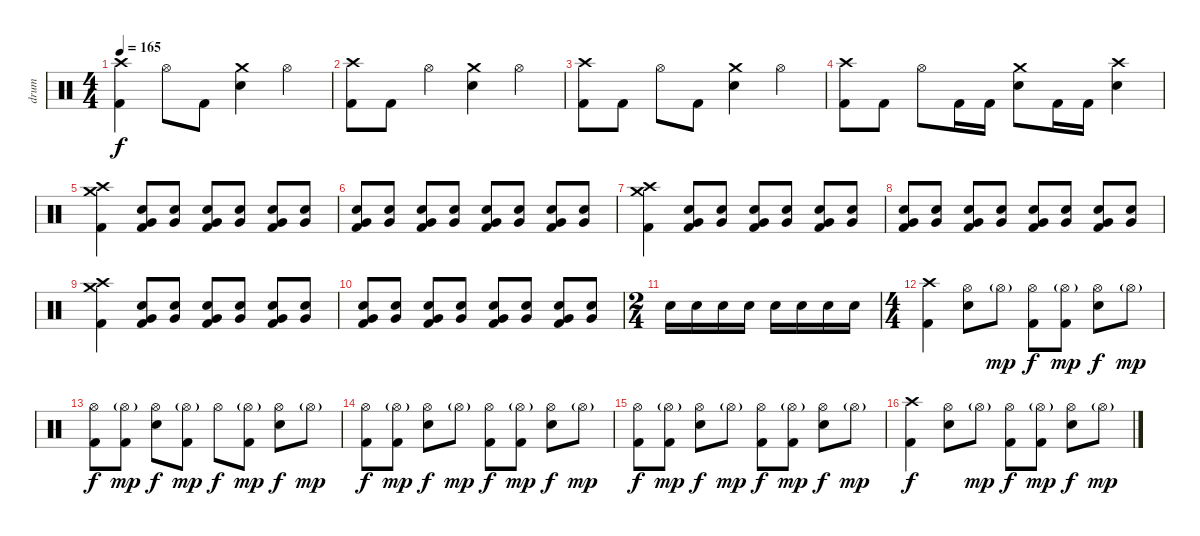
\track ("drum" "drum") {instrument percussion}
\staff {score}
\articulation defaults
\ts (4 4)
\tempo 165
\clef neutral
\ks c
("Crash high (hit)" "Kick (hit) 2").4{dy f} "Hi-Hat (open)".8 "Kick (hit) 2".8 ("Crash medium (hit)" "Electric Snare (hit)").4 "Hi-Hat (open)".4 |
("Crash high (hit)" "Kick (hit) 2").8 "Kick (hit) 2".8 "Hi-Hat (open)".4 ("Crash medium (hit)" "Electric Snare (hit)").4 "Hi-Hat (open)".4 |
("Crash high (hit)" "Kick (hit) 2").8 "Kick (hit) 2".8 "Hi-Hat (open)".8 "Kick (hit) 2".8 ("Crash medium (hit)" "Electric Snare (hit)").4 "Hi-Hat (open)".4 |
("Crash high (hit)" "Kick (hit) 2").8 "Kick (hit) 2".8 "Hi-Hat (open)".8 "Kick (hit) 2".16 "Kick (hit) 2".16 ("Crash medium (hit)" "Electric Snare (hit)").8 "Kick (hit) 2".16 "Kick (hit) 2".16 ("Electric Snare (hit)" "Crash high (hit)").4 |
("Crash medium (hit)" "Crash high (hit)" "Kick (hit) 2").4 ("Very Low Tom (hit)" "Electric Snare (hit)" "Kick (hit) 2").8 ("Very Low Tom (hit)" "Electric Snare (hit)").8 ("Very Low Tom (hit)" "Electric Snare (hit)" "Kick (hit) 2").8 ("Very Low Tom (hit)" "Electric Snare (hit)").8 ("Very Low Tom (hit)" "Electric Snare (hit)" "Kick (hit) 2").8 ("Very Low Tom (hit)" "Electric Snare (hit)").8 |
("Very Low Tom (hit)" "Electric Snare (hit)" "Kick (hit) 2").8 ("Very Low Tom (hit)" "Electric Snare (hit)").8 ("Very Low Tom (hit)" "Electric Snare (hit)" "Kick (hit) 2").8 ("Very Low Tom (hit)" "Electric Snare (hit)").8 ("Very Low Tom (hit)" "Electric Snare (hit)" "Kick (hit) 2").8 ("Very Low Tom (hit)" "Electric Snare (hit)").8 ("Very Low Tom (hit)" "Electric Snare (hit)" "Kick (hit) 2").8 ("Very Low Tom (hit)" "Electric Snare (hit)").8 |
("Crash medium (hit)" "Crash high (hit)" "Kick (hit) 2").4 ("Very Low Tom (hit)" "Electric Snare (hit)" "Kick (hit) 2").8 ("Very Low Tom (hit)" "Electric Snare (hit)").8 ("Very Low Tom (hit)" "Electric Snare (hit)" "Kick (hit) 2").8 ("Very Low Tom (hit)" "Electric Snare (hit)").8 ("Very Low Tom (hit)" "Electric Snare (hit)" "Kick (hit) 2").8 ("Very Low Tom (hit)" "Electric Snare (hit)").8 |
("Very Low Tom (hit)" "Electric Snare (hit)" "Kick (hit) 2").8 ("Very Low Tom (hit)" "Electric Snare (hit)").8 ("Very Low Tom (hit)" "Electric Snare (hit)" "Kick (hit) 2").8 ("Very Low Tom (hit)" "Electric Snare (hit)").8 ("Very Low Tom (hit)" "Electric Snare (hit)" "Kick (hit) 2").8 ("Very Low Tom (hit)" "Electric Snare (hit)").8 ("Very Low Tom (hit)" "Electric Snare (hit)" "Kick (hit) 2").8 ("Very Low Tom (hit)" "Electric Snare (hit)").8 |
("Crash medium (hit)" "Crash high (hit)" "Kick (hit) 2").4 ("Very Low Tom (hit)" "Electric Snare (hit)" "Kick (hit) 2").8 ("Very Low Tom (hit)" "Electric Snare (hit)").8 ("Very Low Tom (hit)" "Electric Snare (hit)" "Kick (hit) 2").8 ("Very Low Tom (hit)" "Electric Snare (hit)").8 ("Very Low Tom (hit)" "Electric Snare (hit)" "Kick (hit) 2").8 ("Very Low Tom (hit)" "Electric Snare (hit)").8 |
("Very Low Tom (hit)" "Electric Snare (hit)" "Kick (hit) 2").8 ("Very Low Tom (hit)" "Electric Snare (hit)").8 ("Very Low Tom (hit)" "Electric Snare (hit)" "Kick (hit) 2").8 ("Very Low Tom (hit)" "Electric Snare (hit)").8 ("Very Low Tom (hit)" "Electric Snare (hit)" "Kick (hit) 2").8 ("Very Low Tom (hit)" "Electric Snare (hit)").8 ("Very Low Tom (hit)" "Electric Snare (hit)" "Kick (hit) 2").8 ("Very Low Tom (hit)" "Electric Snare (hit)").8 |
\ts (2 4)
"Electric Snare (hit)".16 "Electric Snare (hit)".16 "Electric Snare (hit)".16 "Electric Snare (hit)".16 "Electric Snare (hit)".16 "Electric Snare (hit)".16 "Electric Snare (hit)".16 "Electric Snare (hit)".16 |
\ts (4 4)
("Crash high (hit)" "Kick (hit) 2").4 ("Hi-Hat (open)" "Electric Snare (hit)").8 "Hi-Hat (open)"{g}.8{dy mp} ("Hi-Hat (open)" "Kick (hit) 2").8{dy f} ("Hi-Hat (open)"{g} "Kick (hit) 2").8{dy mp} ("Hi-Hat (open)" "Electric Snare (hit)").8{dy f} "Hi-Hat (open)"{g}.8{dy mp} |
("Hi-Hat (open)" "Kick (hit) 2").8{dy f} ("Hi-Hat (open)"{g} "Kick (hit) 2").8{dy mp} ("Hi-Hat (open)" "Electric Snare (hit)").8{dy f} ("Hi-Hat (open)"{g} "Kick (hit) 2").8{dy mp} "Hi-Hat (open)".8{dy f} ("Hi-Hat (open)"{g} "Kick (hit) 2").8{dy mp} ("Hi-Hat (open)" "Electric Snare (hit)").8{dy f} "Hi-Hat (open)"{g}.8{dy mp} |
("Hi-Hat (open)" "Kick (hit) 2").8{dy f} ("Hi-Hat (open)"{g} "Kick (hit) 2").8{dy mp} ("Hi-Hat (open)" "Electric Snare (hit)").8{dy f} "Hi-Hat (open)"{g}.8{dy mp} ("Hi-Hat (open)" "Kick (hit) 2").8{dy f} ("Hi-Hat (open)"{g} "Kick (hit) 2").8{dy mp} ("Hi-Hat (open)" "Electric Snare (hit)").8{dy f} "Hi-Hat (open)"{g}.8{dy mp} |
("Hi-Hat (open)" "Kick (hit) 2").8{dy f} ("Hi-Hat (open)"{g} "Kick (hit) 2").8{dy mp} ("Hi-Hat (open)" "Electric Snare (hit)").8{dy f} "Hi-Hat (open)"{g}.8{dy mp} ("Hi-Hat (open)" "Kick (hit) 2").8{dy f} ("Hi-Hat (open)"{g} "Kick (hit) 2").8{dy mp} ("Hi-Hat (open)" "Electric Snare (hit)").8{dy f} "Hi-Hat (open)"{g}.8{dy mp} |
("Crash high (hit)" "Kick (hit) 2").4{dy f} ("Hi-Hat (open)" "Electric Snare (hit)").8 "Hi-Hat (open)"{g}.8{dy mp} ("Hi-Hat (open)" "Kick (hit) 2").8{dy f} ("Hi-Hat (open)"{g} "Kick (hit) 2").8{dy mp} ("Hi-Hat (open)" "Electric Snare (hit)").8{dy f} "Hi-Hat (open)"{g}.8{dy mp}
